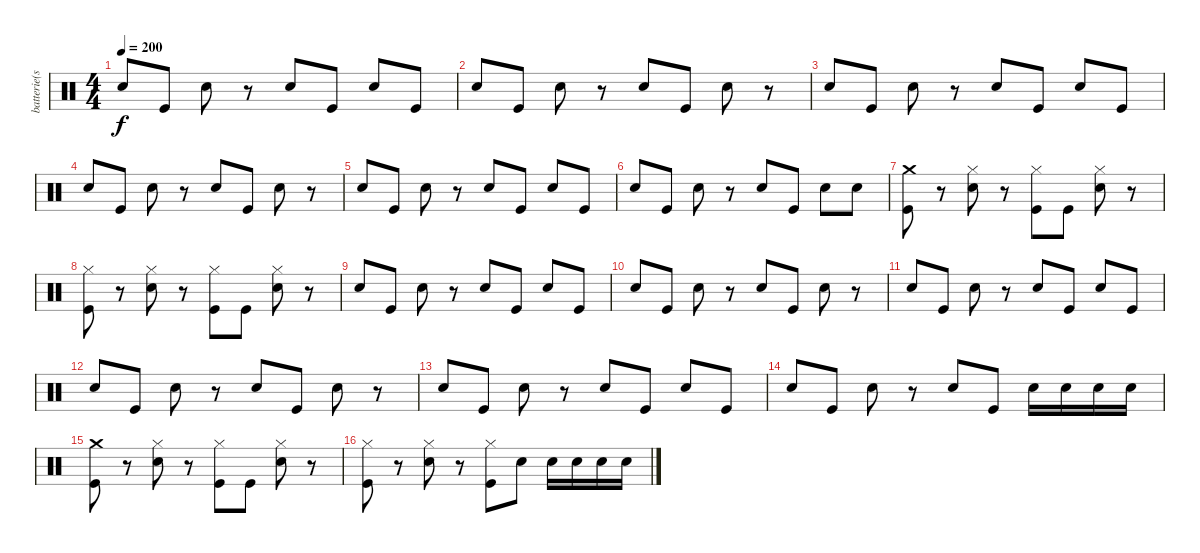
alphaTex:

\track ("batterie(scott)" "batterie(s") {instrument percussion}
\staff {score}
\articulation defaults
\ts (4 4)
\tempo 200
\clef neutral
\ks c "Snare (hit) 2".8{dy f} "Kick (hit)".8 "Snare (hit) 2".8
r.8 "Snare (hit) 2".8 "Kick (hit)".8 "Snare (hit) 2".8 "Kick (hit)".8 |
"Snare (hit) 2".8 "Kick (hit)".8 "Snare (hit) 2".8 r.8 "Snare (hit) 2".8 "Kick (hit)".8 "Snare (hit) 2".8 r.8 |
"Snare (hit) 2".8 "Kick (hit)".8 "Snare (hit) 2".8 r.8 "Snare (hit) 2".8 "Kick (hit)".8 "Snare (hit) 2".8 "Kick (hit)".8 |
"Snare (hit) 2".8 "Kick (hit)".8 "Snare (hit) 2".8 r.8 "Snare (hit) 2".8 "Kick (hit)".8 "Snare (hit) 2".8 r.8 |
"Snare (hit) 2".8 "Kick (hit)".8 "Snare (hit) 2".8 r.8 "Snare (hit) 2".8 "Kick (hit)".8 "Snare (hit) 2".8 "Kick (hit)".8 |
"Snare (hit) 2".8 "Kick (hit)".8 "Snare (hit) 2".8 r.8 "Snare (hit) 2".8 "Kick (hit)".8 "Snare (hit) 2".8 "Snare (hit) 2".8 |
("Crash medium (hit)" "Kick (hit)").8 r.8 ("Hi-Hat (closed)" "Snare (hit) 2").8 r.8 ("Hi-Hat (closed)" "Kick (hit)").8 "Kick (hit)".8 ("Hi-Hat (closed)" "Snare (hit) 2").8 r.8 |
("Hi-Hat (closed)" "Kick (hit)").8 r.8 ("Hi-Hat (closed)" "Snare (hit) 2").8 r.8 ("Hi-Hat (closed)" "Kick (hit)").8 "Kick (hit)".8 ("Hi-Hat (closed)" "Snare (hit) 2").8 r.8 |
"Snare (hit) 2".8 "Kick (hit)".8 "Snare (hit) 2".8 r.8 "Snare (hit) 2".8 "Kick (hit)".8 "Snare (hit) 2".8 "Kick (hit)".8 |
"Snare (hit) 2".8 "Kick (hit)".8 "Snare (hit) 2".8 r.8 "Snare (hit) 2".8 "Kick (hit)".8 "Snare (hit) 2".8 r.8 |
"Snare (hit) 2".8 "Kick (hit)".8 "Snare (hit) 2".8 r.8 "Snare (hit) 2".8 "Kick (hit)".8 "Snare (hit) 2".8 "Kick (hit)".8 |
"Snare (hit) 2".8 "Kick (hit)".8 "Snare (hit) 2".8 r.8 "Snare (hit) 2".8 "Kick (hit)".8 "Snare (hit) 2".8 r.8 |
"Snare (hit) 2".8 "Kick (hit)".8 "Snare (hit) 2".8 r.8 "Snare (hit) 2".8 "Kick (hit)".8 "Snare (hit) 2".8 "Kick (hit)".8 |
"Snare (hit) 2".8 "Kick (hit)".8 "Snare (hit) 2".8 r.8 "Snare (hit) 2".8 "Kick (hit)".8 "Snare (hit) 2".16 "Snare (hit) 2".16 "Snare (hit) 2".16 "Snare (hit) 2".16 |
("Crash medium (hit)" "Kick (hit)").8 r.8 ("Hi-Hat (closed)" "Snare (hit) 2").8 r.8 ("Hi-Hat (closed)" "Kick (hit)").8 "Kick (hit)".8 ("Hi-Hat (closed)" "Snare (hit) 2").8 r.8 |
("Hi-Hat (closed)" "Kick (hit)").8 r.8 ("Hi-Hat (closed)" "Snare (hit) 2").8 r.8 ("Hi-Hat (closed)" "Kick (hit)").8 "Snare (hit) 2".8 "Snare (hit) 2".16 "Snare (hit) 2".16 "Snare (hit) 2".16 "Snare (hit) 2".16
